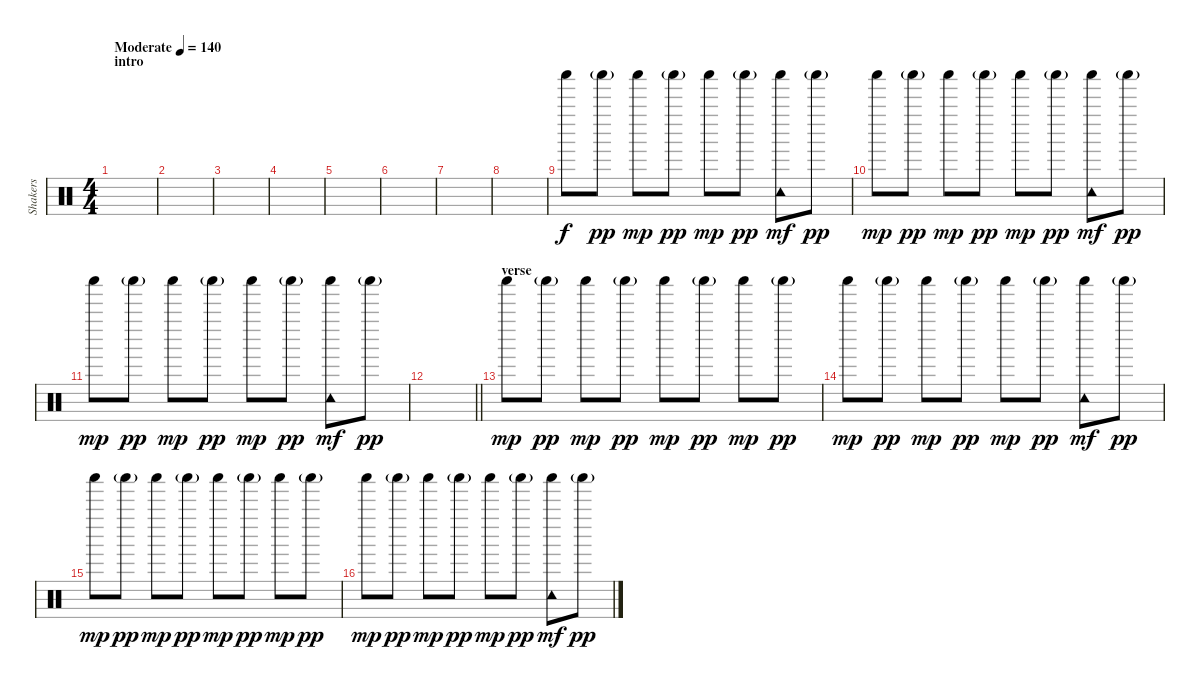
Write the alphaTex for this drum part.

\track ("Shakers" "Shakers") {instrument percussion}
\staff {score}
\articulation defaults
\ts (4 4)
\section ("" "intro")
\tempo (140 "Moderate")
\clef neutral
\ks c
|
|
|
|
|
|
|
|
"Shaker (hit)".8 "Shaker (hit)"{g}.8{dy pp} "Shaker (hit)".8{dy mp} "Shaker (hit)"{g}.8{dy pp} "Shaker (hit)".8{dy mp} "Shaker (hit)"{g}.8{dy pp} ("Shaker (hit)" "Tambourine (hit)").8{dy mf} "Shaker (hit)"{g}.8{dy pp} |
"Shaker (hit)".8{dy mp} "Shaker (hit)"{g}.8{dy pp} "Shaker (hit)".8{dy mp} "Shaker (hit)"{g}.8{dy pp} "Shaker (hit)".8{dy mp} "Shaker (hit)"{g}.8{dy pp} ("Shaker (hit)" "Tambourine (hit)").8{dy mf} "Shaker (hit)"{g}.8{dy pp} |
"Shaker (hit)".8{dy mp} "Shaker (hit)"{g}.8{dy pp} "Shaker (hit)".8{dy mp} "Shaker (hit)"{g}.8{dy pp} "Shaker (hit)".8{dy mp} "Shaker (hit)"{g}.8{dy pp} ("Shaker (hit)" "Tambourine (hit)").8{dy mf} "Shaker (hit)"{g}.8{dy pp} |
\barLineRight lightlight
|
\section ("" "verse")
"Shaker (hit)".8{dy mp} "Shaker (hit)"{g}.8{dy pp} "Shaker (hit)".8{dy mp} "Shaker (hit)"{g}.8{dy pp} "Shaker (hit)".8{dy mp} "Shaker (hit)"{g}.8{dy pp} "Shaker (hit)".8{dy mp} "Shaker (hit)"{g}.8{dy pp} |
"Shaker (hit)".8{dy mp} "Shaker (hit)"{g}.8{dy pp} "Shaker (hit)".8{dy mp} "Shaker (hit)"{g}.8{dy pp} "Shaker (hit)".8{dy mp} "Shaker (hit)"{g}.8{dy pp} ("Shaker (hit)" "Tambourine (hit)").8{dy mf} "Shaker (hit)"{g}.8{dy pp} |
"Shaker (hit)".8{dy mp} "Shaker (hit)"{g}.8{dy pp} "Shaker (hit)".8{dy mp} "Shaker (hit)"{g}.8{dy pp} "Shaker (hit)".8{dy mp} "Shaker (hit)"{g}.8{dy pp} "Shaker (hit)".8{dy mp} "Shaker (hit)"{g}.8{dy pp} |
"Shaker (hit)".8{dy mp} "Shaker (hit)"{g}.8{dy pp} "Shaker (hit)".8{dy mp} "Shaker (hit)"{g}.8{dy pp} "Shaker (hit)".8{dy mp} "Shaker (hit)"{g}.8{dy pp} ("Shaker (hit)" "Tambourine (hit)").8{dy mf} "Shaker (hit)"{g}.8{dy pp}
